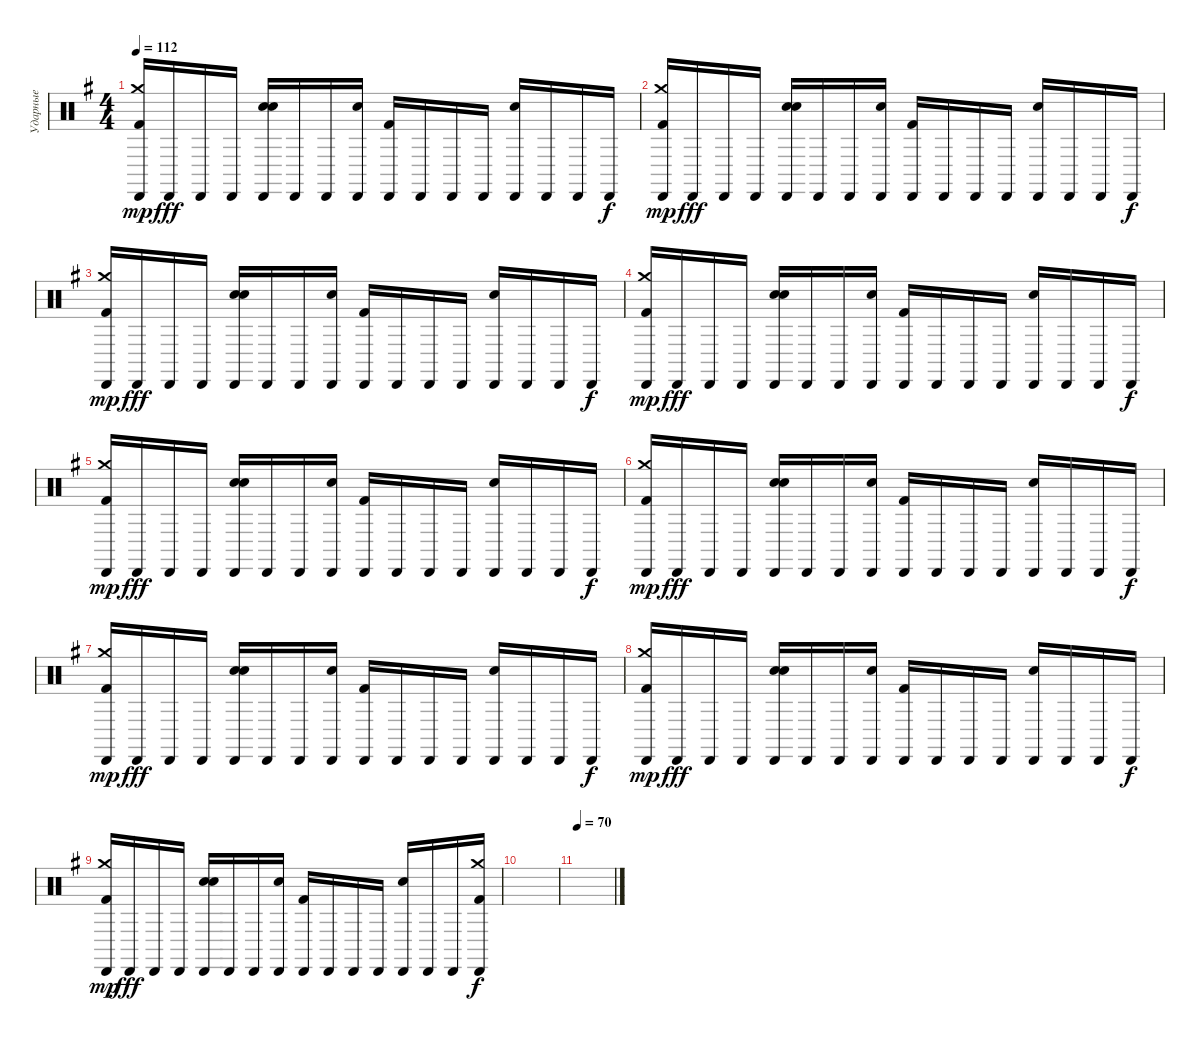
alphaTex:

\track ("Ударные" "Ударные") {instrument percussion}
\staff {score}
\articulation defaults
\ts (4 4)
\tempo 112
\clef neutral
\ks eminor
("Cabasa (hit)" "Crash medium (hit)" "Kick (hit) 2").16{dy mp} "Cabasa (hit)".16{dy fff} "Cabasa (hit)".16 "Cabasa (hit)".16 ("Cabasa (hit)" "Electric Snare (hit)" "Snare (hit) 2").16 "Cabasa (hit)".16 "Cabasa (hit)".16 ("Cabasa (hit)" "Snare (hit) 2").16 ("Cabasa (hit)" "Kick (hit) 2").16 "Cabasa (hit)".16 "Cabasa (hit)".16 "Cabasa (hit)".16 ("Cabasa (hit)" "Snare (hit) 2").16 "Cabasa (hit)".16 "Cabasa (hit)".16 "Cabasa (hit)".16{dy f} |
("Cabasa (hit)" "Crash medium (hit)" "Kick (hit) 2").16{dy mp} "Cabasa (hit)".16{dy fff} "Cabasa (hit)".16 "Cabasa (hit)".16 ("Cabasa (hit)" "Electric Snare (hit)" "Snare (hit) 2").16 "Cabasa (hit)".16 "Cabasa (hit)".16 ("Cabasa (hit)" "Snare (hit) 2").16 ("Cabasa (hit)" "Kick (hit) 2").16 "Cabasa (hit)".16 "Cabasa (hit)".16 "Cabasa (hit)".16 ("Cabasa (hit)" "Snare (hit) 2").16 "Cabasa (hit)".16 "Cabasa (hit)".16 "Cabasa (hit)".16{dy f} |
("Cabasa (hit)" "Crash medium (hit)" "Kick (hit) 2").16{dy mp} "Cabasa (hit)".16{dy fff} "Cabasa (hit)".16 "Cabasa (hit)".16 ("Cabasa (hit)" "Electric Snare (hit)" "Snare (hit) 2").16 "Cabasa (hit)".16 "Cabasa (hit)".16 ("Cabasa (hit)" "Snare (hit) 2").16 ("Cabasa (hit)" "Kick (hit) 2").16 "Cabasa (hit)".16 "Cabasa (hit)".16 "Cabasa (hit)".16 ("Cabasa (hit)" "Snare (hit) 2").16 "Cabasa (hit)".16 "Cabasa (hit)".16 "Cabasa (hit)".16{dy f} |
("Cabasa (hit)" "Crash medium (hit)" "Kick (hit) 2").16{dy mp} "Cabasa (hit)".16{dy fff} "Cabasa (hit)".16 "Cabasa (hit)".16 ("Cabasa (hit)" "Electric Snare (hit)" "Snare (hit) 2").16 "Cabasa (hit)".16 "Cabasa (hit)".16 ("Cabasa (hit)" "Snare (hit) 2").16 ("Cabasa (hit)" "Kick (hit) 2").16 "Cabasa (hit)".16 "Cabasa (hit)".16 "Cabasa (hit)".16 ("Cabasa (hit)" "Snare (hit) 2").16 "Cabasa (hit)".16 "Cabasa (hit)".16 "Cabasa (hit)".16{dy f} |
("Cabasa (hit)" "Crash medium (hit)" "Kick (hit) 2").16{dy mp} "Cabasa (hit)".16{dy fff} "Cabasa (hit)".16 "Cabasa (hit)".16 ("Cabasa (hit)" "Electric Snare (hit)" "Snare (hit) 2").16 "Cabasa (hit)".16 "Cabasa (hit)".16 ("Cabasa (hit)" "Snare (hit) 2").16 ("Cabasa (hit)" "Kick (hit) 2").16 "Cabasa (hit)".16 "Cabasa (hit)".16 "Cabasa (hit)".16 ("Cabasa (hit)" "Snare (hit) 2").16 "Cabasa (hit)".16 "Cabasa (hit)".16 "Cabasa (hit)".16{dy f} |
("Cabasa (hit)" "Crash medium (hit)" "Kick (hit) 2").16{dy mp} "Cabasa (hit)".16{dy fff} "Cabasa (hit)".16 "Cabasa (hit)".16 ("Cabasa (hit)" "Electric Snare (hit)" "Snare (hit) 2").16 "Cabasa (hit)".16 "Cabasa (hit)".16 ("Cabasa (hit)" "Snare (hit) 2").16 ("Cabasa (hit)" "Kick (hit) 2").16 "Cabasa (hit)".16 "Cabasa (hit)".16 "Cabasa (hit)".16 ("Cabasa (hit)" "Snare (hit) 2").16 "Cabasa (hit)".16 "Cabasa (hit)".16 "Cabasa (hit)".16{dy f} |
("Cabasa (hit)" "Crash medium (hit)" "Kick (hit) 2").16{dy mp} "Cabasa (hit)".16{dy fff} "Cabasa (hit)".16 "Cabasa (hit)".16 ("Cabasa (hit)" "Electric Snare (hit)" "Snare (hit) 2").16 "Cabasa (hit)".16 "Cabasa (hit)".16 ("Cabasa (hit)" "Snare (hit) 2").16 ("Cabasa (hit)" "Kick (hit) 2").16 "Cabasa (hit)".16 "Cabasa (hit)".16 "Cabasa (hit)".16 ("Cabasa (hit)" "Snare (hit) 2").16 "Cabasa (hit)".16 "Cabasa (hit)".16 "Cabasa (hit)".16{dy f} |
("Cabasa (hit)" "Crash medium (hit)" "Kick (hit) 2").16{dy mp} "Cabasa (hit)".16{dy fff} "Cabasa (hit)".16 "Cabasa (hit)".16 ("Cabasa (hit)" "Electric Snare (hit)" "Snare (hit) 2").16 "Cabasa (hit)".16 "Cabasa (hit)".16 ("Cabasa (hit)" "Snare (hit) 2").16 ("Cabasa (hit)" "Kick (hit) 2").16 "Cabasa (hit)".16 "Cabasa (hit)".16 "Cabasa (hit)".16 ("Cabasa (hit)" "Snare (hit) 2").16 "Cabasa (hit)".16 "Cabasa (hit)".16 "Cabasa (hit)".16{dy f} |
("Cabasa (hit)" "Crash medium (hit)" "Kick (hit) 2").16{dy mp} "Cabasa (hit)".16{dy fff} "Cabasa (hit)".16 "Cabasa (hit)".16 ("Cabasa (hit)" "Electric Snare (hit)" "Snare (hit) 2").16 "Cabasa (hit)".16 "Cabasa (hit)".16 ("Cabasa (hit)" "Snare (hit) 2").16 ("Cabasa (hit)" "Kick (hit) 2").16 "Cabasa (hit)".16 "Cabasa (hit)".16 "Cabasa (hit)".16 ("Cabasa (hit)" "Snare (hit) 2").16 "Cabasa (hit)".16 "Cabasa (hit)".16 ("Cabasa (hit)" "Crash medium (hit)" "Kick (hit) 2").16{dy f} |
|
\tempo 70
